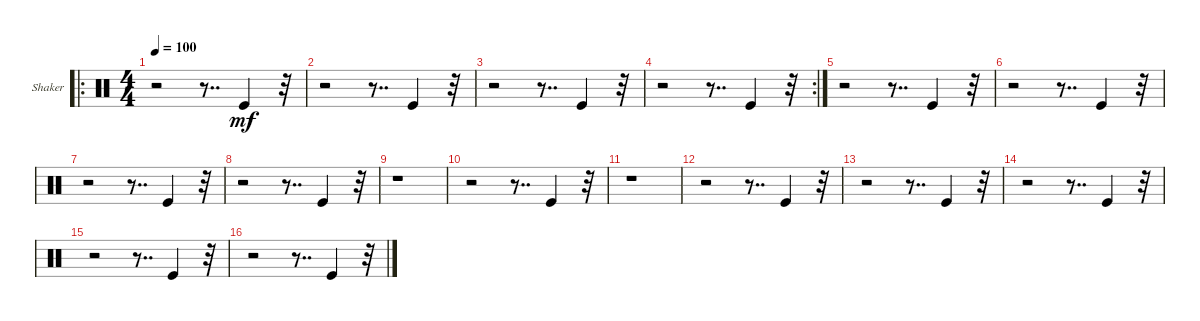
\defaultSystemsLayout 4
\bracketExtendMode groupsimilarinstruments
\firstSystemTrackNameOrientation horizontal
\otherSystemsTrackNameOrientation horizontal
\track ("Shaker" "Shaker") {instrument percussion}
\staff {score}
\articulation defaults
\ro
\ts (4 4)
\tempo 100
\clef neutral
\scale
0.502222
\ks c
r.2{dy mf} r.8{dd} "Kick (hit)".4 r.32 |
\scale
0.248889 r.2 r.8{dd} "Kick (hit)".4 r.32 |
\scale
0.248889 r.2 r.8{dd} "Kick (hit)".4 r.32 |
\rc 2
\scale
0.356322 r.2 r.8{dd} "Kick (hit)".4 r.32 |
\scale
0.321839 r.2 r.8{dd} "Kick (hit)".4 r.32 |
\scale
0.321839 r.2 r.8{dd} "Kick (hit)".4 r.32 |
\scale
0.333333 r.2 r.8{dd} "Kick (hit)".4 r.32 |
\scale
0.333333 r.2 r.8{dd} "Kick (hit)".4 r.32 |
\scale
0.333333 r.1 |
\scale
0.333333 r.2 r.8{dd} "Kick (hit)".4 r.32 |
\scale
0.333333 r.1 |
\scale
0.333333 r.2 r.8{dd} "Kick (hit)".4 r.32 |
\scale
0.333333 r.2 r.8{dd} "Kick (hit)".4 r.32 |
\scale
0.333333 r.2 r.8{dd} "Kick (hit)".4 r.32 |
\scale
0.333333 r.2 r.8{dd} "Kick (hit)".4 r.32 |
\scale
0.333333 r.2 r.8{dd} "Kick (hit)".4 r.32
